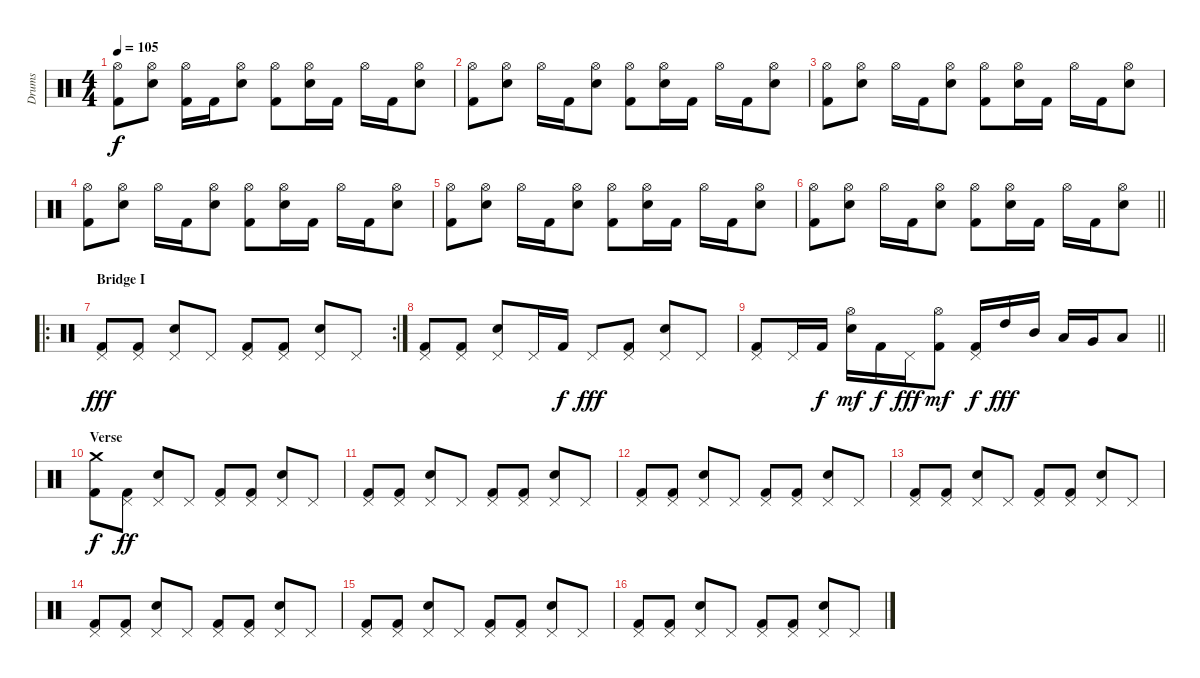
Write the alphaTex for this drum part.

\track ("Drums" "Drums") {instrument percussion}
\staff {score}
\articulation defaults
\ts (4 4)
\tempo 105
\clef neutral
\ks c
("Hi-Hat (open)" "Kick (hit) 2").8{dy f} ("Hi-Hat (open)" "Electric Snare (hit)").8 ("Hi-Hat (open)" "Kick (hit) 2").16 "Kick (hit) 2".16 ("Hi-Hat (open)" "Electric Snare (hit)").8 ("Hi-Hat (open)" "Kick (hit) 2").8 ("Hi-Hat (open)" "Electric Snare (hit)").16 "Kick (hit) 2".16 "Hi-Hat (open)".16 "Kick (hit) 2".16 ("Hi-Hat (open)" "Electric Snare (hit)").8 |
("Hi-Hat (open)" "Kick (hit) 2").8 ("Hi-Hat (open)" "Electric Snare (hit)").8 "Hi-Hat (open)".16 "Kick (hit) 2".16 ("Hi-Hat (open)" "Electric Snare (hit)").8 ("Hi-Hat (open)" "Kick (hit) 2").8 ("Hi-Hat (open)" "Electric Snare (hit)").16 "Kick (hit) 2".16 "Hi-Hat (open)".16 "Kick (hit) 2".16 ("Hi-Hat (open)" "Electric Snare (hit)").8 |
("Hi-Hat (open)" "Kick (hit) 2").8 ("Hi-Hat (open)" "Electric Snare (hit)").8 "Hi-Hat (open)".16 "Kick (hit) 2".16 ("Hi-Hat (open)" "Electric Snare (hit)").8 ("Hi-Hat (open)" "Kick (hit) 2").8 ("Hi-Hat (open)" "Electric Snare (hit)").16 "Kick (hit) 2".16 "Hi-Hat (open)".16 "Kick (hit) 2".16 ("Hi-Hat (open)" "Electric Snare (hit)").8 |
("Hi-Hat (open)" "Kick (hit) 2").8 ("Hi-Hat (open)" "Electric Snare (hit)").8 "Hi-Hat (open)".16 "Kick (hit) 2".16 ("Hi-Hat (open)" "Electric Snare (hit)").8 ("Hi-Hat (open)" "Kick (hit) 2").8 ("Hi-Hat (open)" "Electric Snare (hit)").16 "Kick (hit) 2".16 "Hi-Hat (open)".16 "Kick (hit) 2".16 ("Hi-Hat (open)" "Electric Snare (hit)").8 |
("Hi-Hat (open)" "Kick (hit) 2").8 ("Hi-Hat (open)" "Electric Snare (hit)").8 "Hi-Hat (open)".16 "Kick (hit) 2".16 ("Hi-Hat (open)" "Electric Snare (hit)").8 ("Hi-Hat (open)" "Kick (hit) 2").8 ("Hi-Hat (open)" "Electric Snare (hit)").16 "Kick (hit) 2".16 "Hi-Hat (open)".16 "Kick (hit) 2".16 ("Hi-Hat (open)" "Electric Snare (hit)").8 |
\barLineRight lightlight
("Hi-Hat (open)" "Kick (hit) 2").8 ("Hi-Hat (open)" "Electric Snare (hit)").8 "Hi-Hat (open)".16 "Kick (hit) 2".16 ("Hi-Hat (open)" "Electric Snare (hit)").8 ("Hi-Hat (open)" "Kick (hit) 2").8 ("Hi-Hat (open)" "Electric Snare (hit)").16 "Kick (hit) 2".16 "Hi-Hat (open)".16 "Kick (hit) 2".16 ("Hi-Hat (open)" "Electric Snare (hit)").8 |
\ro
\rc 2
\section ("" "Bridge I")
("Pedal Hi-Hat (hit)" "Kick (hit) 2").8{dy fff} ("Pedal Hi-Hat (hit)" "Kick (hit) 2").8 ("Pedal Hi-Hat (hit)" "Electric Snare (hit)").8 "Pedal Hi-Hat (hit)".8 ("Pedal Hi-Hat (hit)" "Kick (hit) 2").8 ("Pedal Hi-Hat (hit)" "Kick (hit) 2").8 ("Pedal Hi-Hat (hit)" "Electric Snare (hit)").8 "Pedal Hi-Hat (hit)".8 |
("Pedal Hi-Hat (hit)" "Kick (hit) 2").8 ("Pedal Hi-Hat (hit)" "Kick (hit) 2").8 ("Pedal Hi-Hat (hit)" "Electric Snare (hit)").8 "Pedal Hi-Hat (hit)".16 "Kick (hit) 2".16{dy f} "Pedal Hi-Hat (hit)".8{dy fff} ("Pedal Hi-Hat (hit)" "Kick (hit) 2").8 ("Pedal Hi-Hat (hit)" "Electric Snare (hit)").8 "Pedal Hi-Hat (hit)".8 |
\barLineRight lightlight
("Pedal Hi-Hat (hit)" "Kick (hit) 2").8 "Pedal Hi-Hat (hit)".16 "Kick (hit) 2".16{dy f} ("Hi-Hat (open)" "Electric Snare (hit)").16{dy mf} "Kick (hit) 2".16{dy f} "Pedal Hi-Hat (hit)".16{dy fff} ("Hi-Hat (open)" "Kick (hit) 2").8{dy mf} ("Pedal Hi-Hat (hit)" "Kick (hit) 2").16{dy f} "High Tom (hit)".16{dy fff} "Mid Tom (hit)".16 "Low Tom (hit)".16 "Very Low Tom (hit)".16 "Low Floor Tom (hit)".8 |
\section ("" "Verse")
("Crash medium (hit)" "Kick (hit) 2").8{dy f} ("Pedal Hi-Hat (hit)" "Kick (hit) 2").8{dy ff} ("Pedal Hi-Hat (hit)" "Electric Snare (hit)").8 "Pedal Hi-Hat (hit)".8 ("Pedal Hi-Hat (hit)" "Kick (hit) 2").8 ("Pedal Hi-Hat (hit)" "Kick (hit) 2").8 ("Pedal Hi-Hat (hit)" "Electric Snare (hit)").8 "Pedal Hi-Hat (hit)".8 |
("Pedal Hi-Hat (hit)" "Kick (hit) 2").8 ("Pedal Hi-Hat (hit)" "Kick (hit) 2").8 ("Pedal Hi-Hat (hit)" "Electric Snare (hit)").8 "Pedal Hi-Hat (hit)".8 ("Pedal Hi-Hat (hit)" "Kick (hit) 2").8 ("Pedal Hi-Hat (hit)" "Kick (hit) 2").8 ("Pedal Hi-Hat (hit)" "Electric Snare (hit)").8 "Pedal Hi-Hat (hit)".8 |
("Pedal Hi-Hat (hit)" "Kick (hit) 2").8 ("Pedal Hi-Hat (hit)" "Kick (hit) 2").8 ("Pedal Hi-Hat (hit)" "Electric Snare (hit)").8 "Pedal Hi-Hat (hit)".8 ("Pedal Hi-Hat (hit)" "Kick (hit) 2").8 ("Pedal Hi-Hat (hit)" "Kick (hit) 2").8 ("Pedal Hi-Hat (hit)" "Electric Snare (hit)").8 "Pedal Hi-Hat (hit)".8 |
("Pedal Hi-Hat (hit)" "Kick (hit) 2").8 ("Pedal Hi-Hat (hit)" "Kick (hit) 2").8 ("Pedal Hi-Hat (hit)" "Electric Snare (hit)").8 "Pedal Hi-Hat (hit)".8 ("Pedal Hi-Hat (hit)" "Kick (hit) 2").8 ("Pedal Hi-Hat (hit)" "Kick (hit) 2").8 ("Pedal Hi-Hat (hit)" "Electric Snare (hit)").8 "Pedal Hi-Hat (hit)".8 |
("Pedal Hi-Hat (hit)" "Kick (hit) 2").8 ("Pedal Hi-Hat (hit)" "Kick (hit) 2").8 ("Pedal Hi-Hat (hit)" "Electric Snare (hit)").8 "Pedal Hi-Hat (hit)".8 ("Pedal Hi-Hat (hit)" "Kick (hit) 2").8 ("Pedal Hi-Hat (hit)" "Kick (hit) 2").8 ("Pedal Hi-Hat (hit)" "Electric Snare (hit)").8 "Pedal Hi-Hat (hit)".8 |
("Pedal Hi-Hat (hit)" "Kick (hit) 2").8 ("Pedal Hi-Hat (hit)" "Kick (hit) 2").8 ("Pedal Hi-Hat (hit)" "Electric Snare (hit)").8 "Pedal Hi-Hat (hit)".8 ("Pedal Hi-Hat (hit)" "Kick (hit) 2").8 ("Pedal Hi-Hat (hit)" "Kick (hit) 2").8 ("Pedal Hi-Hat (hit)" "Electric Snare (hit)").8 "Pedal Hi-Hat (hit)".8 |
("Pedal Hi-Hat (hit)" "Kick (hit) 2").8 ("Pedal Hi-Hat (hit)" "Kick (hit) 2").8 ("Pedal Hi-Hat (hit)" "Electric Snare (hit)").8 "Pedal Hi-Hat (hit)".8 ("Pedal Hi-Hat (hit)" "Kick (hit) 2").8 ("Pedal Hi-Hat (hit)" "Kick (hit) 2").8 ("Pedal Hi-Hat (hit)" "Electric Snare (hit)").8 "Pedal Hi-Hat (hit)".8
